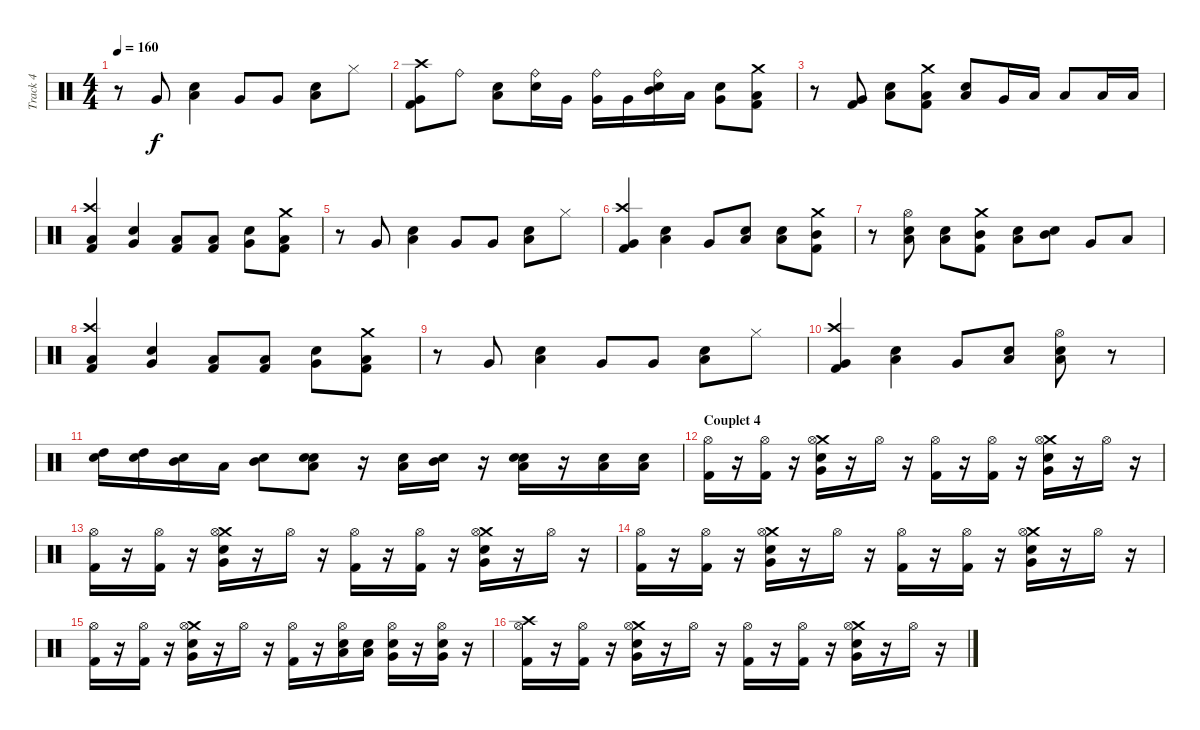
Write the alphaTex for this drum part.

\track ("Track 4" "Track 4") {instrument percussion}
\staff {score}
\articulation defaults
\ts (4 4)
\tempo 160
\clef neutral
\ks c
r.8{dy f} "Very Low Tom (hit)".8 ("Low Tom (hit)" "Electric Snare (hit)").4 "Very Low Tom (hit)".8 "Very Low Tom (hit)".8 ("Low Tom (hit)" "Electric Snare (hit)").8 "Hi-Hat (closed)".8 |
("Very Low Tom (hit)" "Crash high (hit)" "Kick (hit) 2").8 "Ride (bell)".8 ("Low Tom (hit)" "Electric Snare (hit)").8 ("Ride (bell)" "Electric Snare (hit)").16 "Very Low Tom (hit)".16 ("Very Low Tom (hit)" "Ride (bell)").16 "Very Low Tom (hit)".16 ("Ride (bell)" "Electric Snare (hit)" "Mid Tom (hit)").16 "Low Tom (hit)".16 ("Very Low Tom (hit)" "Electric Snare (hit)").8 ("Low Tom (hit)" "Kick (hit) 2" "Crash medium (hit)").8 |
r.8 ("Very Low Tom (hit)" "Kick (hit) 2").8 ("Low Tom (hit)" "Electric Snare (hit)").8 ("Low Tom (hit)" "Kick (hit) 2" "Crash medium (hit)").8 ("Low Tom (hit)" "Electric Snare (hit)").8 "Very Low Tom (hit)".16 "Low Tom (hit)".16 "Low Tom (hit)".8 "Low Tom (hit)".16 "Low Tom (hit)".16 |
("Low Tom (hit)" "Crash high (hit)" "Kick (hit) 2").4 ("Electric Snare (hit)" "Very Low Tom (hit)").4 ("Low Tom (hit)" "Kick (hit) 2").8 ("Low Tom (hit)" "Kick (hit) 2").8 ("Electric Snare (hit)" "Very Low Tom (hit)").8 ("Low Tom (hit)" "Kick (hit) 2" "Crash medium (hit)").8 |
r.8 "Very Low Tom (hit)".8 ("Low Tom (hit)" "Electric Snare (hit)").4 "Very Low Tom (hit)".8 "Very Low Tom (hit)".8 ("Low Tom (hit)" "Electric Snare (hit)").8 "Hi-Hat (closed)".8 |
("Very Low Tom (hit)" "Crash high (hit)" "Kick (hit) 2").4 ("Low Tom (hit)" "Electric Snare (hit)").4 "Very Low Tom (hit)".8 ("Low Tom (hit)" "Electric Snare (hit)").8 ("Low Tom (hit)" "Electric Snare (hit)").8 ("Mid Tom (hit)" "Kick (hit) 2" "Crash medium (hit)").8 |
r.8 ("Low Tom (hit)" "Electric Snare (hit)" "Hi-Hat (open)").8 ("Low Tom (hit)" "Electric Snare (hit)").8 ("Mid Tom (hit)" "Kick (hit) 2" "Crash medium (hit)").8 ("Low Tom (hit)" "Electric Snare (hit)").8 ("Mid Tom (hit)" "Electric Snare (hit)").8 "Very Low Tom (hit)".8 "Low Floor Tom (hit)".8 |
("Low Tom (hit)" "Crash high (hit)" "Kick (hit) 2").4 ("Electric Snare (hit)" "Very Low Tom (hit)").4 ("Low Tom (hit)" "Kick (hit) 2").8 ("Low Tom (hit)" "Kick (hit) 2").8 ("Electric Snare (hit)" "Very Low Tom (hit)").8 ("Low Tom (hit)" "Kick (hit) 2" "Crash medium (hit)").8 |
r.8 "Very Low Tom (hit)".8 ("Low Tom (hit)" "Electric Snare (hit)").4 "Very Low Tom (hit)".8 "Very Low Tom (hit)".8 ("Low Tom (hit)" "Electric Snare (hit)").8 "Hi-Hat (closed)".8 |
("Very Low Tom (hit)" "Crash high (hit)" "Kick (hit) 2").4 ("Low Tom (hit)" "Electric Snare (hit)").4 "Very Low Tom (hit)".8 ("Low Tom (hit)" "Electric Snare (hit)").8 ("Low Tom (hit)" "Electric Snare (hit)" "Hi-Hat (open)").8 r.8 |
("High Tom (hit)" "Electric Snare (hit)").16 ("High Tom (hit)" "Electric Snare (hit)").16 ("Mid Tom (hit)" "Electric Snare (hit)").16 "Low Tom (hit)".16 ("Mid Tom (hit)" "Electric Snare (hit)").8 ("Low Tom (hit)" "Electric Snare (hit)" "Snare (hit) 2").8 r.16 ("Low Tom (hit)" "Electric Snare (hit)").16 ("Mid Tom (hit)" "Electric Snare (hit)").16 r.16 ("Low Tom (hit)" "Electric Snare (hit)" "Snare (hit) 2").16 r.16 ("Low Tom (hit)" "Electric Snare (hit)").16 ("Low Tom (hit)" "Electric Snare (hit)").16 |
\section ("" "Couplet 4")
("Kick (hit) 2" "Hi-Hat (open)").16 r.16 ("Kick (hit) 2" "Hi-Hat (open)").16 r.16 ("Very Low Tom (hit)" "Electric Snare (hit)" "Crash medium (hit)" "Hi-Hat (open)").16 r.16 "Hi-Hat (open)".16 r.16 ("Kick (hit) 2" "Hi-Hat (open)").16 r.16 ("Kick (hit) 2" "Hi-Hat (open)").16 r.16 ("Very Low Tom (hit)" "Electric Snare (hit)" "Crash medium (hit)" "Hi-Hat (open)").16 r.16 "Hi-Hat (open)".16 r.16 |
("Kick (hit) 2" "Hi-Hat (open)").16 r.16 ("Kick (hit) 2" "Hi-Hat (open)").16 r.16 ("Very Low Tom (hit)" "Electric Snare (hit)" "Crash medium (hit)" "Hi-Hat (open)").16 r.16 "Hi-Hat (open)".16 r.16 ("Kick (hit) 2" "Hi-Hat (open)").16 r.16 ("Kick (hit) 2" "Hi-Hat (open)").16 r.16 ("Very Low Tom (hit)" "Electric Snare (hit)" "Crash medium (hit)" "Hi-Hat (open)").16 r.16 "Hi-Hat (open)".16 r.16 |
("Kick (hit) 2" "Hi-Hat (open)").16 r.16 ("Kick (hit) 2" "Hi-Hat (open)").16 r.16 ("Very Low Tom (hit)" "Electric Snare (hit)" "Crash medium (hit)" "Hi-Hat (open)").16 r.16 "Hi-Hat (open)".16 r.16 ("Kick (hit) 2" "Hi-Hat (open)").16 r.16 ("Kick (hit) 2" "Hi-Hat (open)").16 r.16 ("Very Low Tom (hit)" "Electric Snare (hit)" "Crash medium (hit)" "Hi-Hat (open)").16 r.16 "Hi-Hat (open)".16 r.16 |
("Kick (hit) 2" "Hi-Hat (open)").16 r.16 ("Kick (hit) 2" "Hi-Hat (open)").16 r.16 ("Very Low Tom (hit)" "Electric Snare (hit)" "Crash medium (hit)" "Hi-Hat (open)").16 r.16 "Hi-Hat (open)".16 r.16 ("Kick (hit) 2" "Hi-Hat (open)").16 r.16 ("Electric Snare (hit)" "Hi-Hat (open)" "Low Tom (hit)").16 ("Low Tom (hit)" "Electric Snare (hit)").16 ("Very Low Tom (hit)" "Snare (hit) 2" "Hi-Hat (open)").16 r.16 ("Electric Snare (hit)" "Hi-Hat (open)" "Very Low Tom (hit)").16 r.16 |
("Kick (hit) 2" "Hi-Hat (open)" "Crash high (hit)").16 r.16 ("Kick (hit) 2" "Hi-Hat (open)").16 r.16 ("Very Low Tom (hit)" "Electric Snare (hit)" "Crash medium (hit)" "Hi-Hat (open)").16 r.16 "Hi-Hat (open)".16 r.16 ("Kick (hit) 2" "Hi-Hat (open)").16 r.16 ("Kick (hit) 2" "Hi-Hat (open)").16 r.16 ("Very Low Tom (hit)" "Electric Snare (hit)" "Crash medium (hit)" "Hi-Hat (open)").16 r.16 "Hi-Hat (open)".16 r.16
